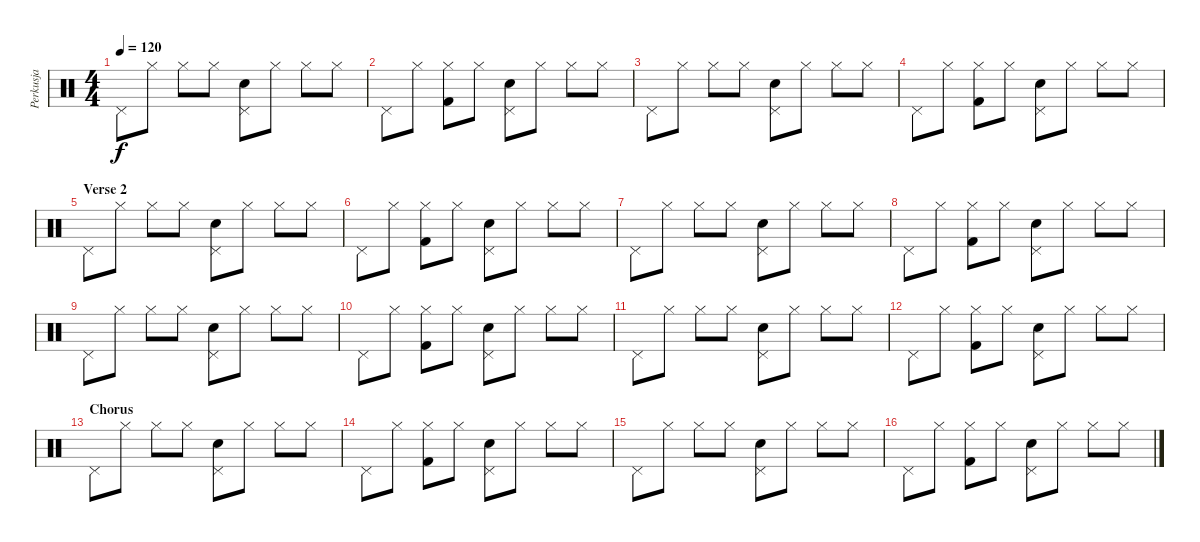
\track ("Perkusja" "Perkusja") {instrument percussion}
\staff {score}
\articulation defaults
\ts (4 4)
\tempo 120
\clef neutral
\ks c "Pedal Hi-Hat (hit)".8{dy f} "Hi-Hat (closed)".8 "Hi-Hat (closed)".8 "Hi-Hat (closed)".8
("Pedal Hi-Hat (hit)" "Snare (hit) 2").8 "Hi-Hat (closed)".8 "Hi-Hat (closed)".8 "Hi-Hat (closed)".8 |
"Pedal Hi-Hat (hit)".8 "Hi-Hat (closed)".8 ("Hi-Hat (closed)" "Kick (hit) 2").8 "Hi-Hat (closed)".8 ("Pedal Hi-Hat (hit)" "Snare (hit) 2").8 "Hi-Hat (closed)".8 "Hi-Hat (closed)".8 "Hi-Hat (closed)".8 |
"Pedal Hi-Hat (hit)".8 "Hi-Hat (closed)".8 "Hi-Hat (closed)".8 "Hi-Hat (closed)".8 ("Pedal Hi-Hat (hit)" "Snare (hit) 2").8 "Hi-Hat (closed)".8 "Hi-Hat (closed)".8 "Hi-Hat (closed)".8 |
"Pedal Hi-Hat (hit)".8 "Hi-Hat (closed)".8 ("Hi-Hat (closed)" "Kick (hit) 2").8 "Hi-Hat (closed)".8 ("Pedal Hi-Hat (hit)" "Snare (hit) 2").8 "Hi-Hat (closed)".8 "Hi-Hat (closed)".8 "Hi-Hat (closed)".8 |
\section ("" "Verse 2")
"Pedal Hi-Hat (hit)".8 "Hi-Hat (closed)".8 "Hi-Hat (closed)".8 "Hi-Hat (closed)".8 ("Pedal Hi-Hat (hit)" "Snare (hit) 2").8 "Hi-Hat (closed)".8 "Hi-Hat (closed)".8 "Hi-Hat (closed)".8 |
"Pedal Hi-Hat (hit)".8 "Hi-Hat (closed)".8 ("Hi-Hat (closed)" "Kick (hit) 2").8 "Hi-Hat (closed)".8 ("Pedal Hi-Hat (hit)" "Snare (hit) 2").8 "Hi-Hat (closed)".8 "Hi-Hat (closed)".8 "Hi-Hat (closed)".8 |
"Pedal Hi-Hat (hit)".8 "Hi-Hat (closed)".8 "Hi-Hat (closed)".8 "Hi-Hat (closed)".8 ("Pedal Hi-Hat (hit)" "Snare (hit) 2").8 "Hi-Hat (closed)".8 "Hi-Hat (closed)".8 "Hi-Hat (closed)".8 |
"Pedal Hi-Hat (hit)".8 "Hi-Hat (closed)".8 ("Hi-Hat (closed)" "Kick (hit) 2").8 "Hi-Hat (closed)".8 ("Pedal Hi-Hat (hit)" "Snare (hit) 2").8 "Hi-Hat (closed)".8 "Hi-Hat (closed)".8 "Hi-Hat (closed)".8 |
"Pedal Hi-Hat (hit)".8 "Hi-Hat (closed)".8 "Hi-Hat (closed)".8 "Hi-Hat (closed)".8 ("Pedal Hi-Hat (hit)" "Snare (hit) 2").8 "Hi-Hat (closed)".8 "Hi-Hat (closed)".8 "Hi-Hat (closed)".8 |
"Pedal Hi-Hat (hit)".8 "Hi-Hat (closed)".8 ("Hi-Hat (closed)" "Kick (hit) 2").8 "Hi-Hat (closed)".8 ("Pedal Hi-Hat (hit)" "Snare (hit) 2").8 "Hi-Hat (closed)".8 "Hi-Hat (closed)".8 "Hi-Hat (closed)".8 |
"Pedal Hi-Hat (hit)".8 "Hi-Hat (closed)".8 "Hi-Hat (closed)".8 "Hi-Hat (closed)".8 ("Pedal Hi-Hat (hit)" "Snare (hit) 2").8 "Hi-Hat (closed)".8 "Hi-Hat (closed)".8 "Hi-Hat (closed)".8 |
"Pedal Hi-Hat (hit)".8 "Hi-Hat (closed)".8 ("Hi-Hat (closed)" "Kick (hit) 2").8 "Hi-Hat (closed)".8 ("Pedal Hi-Hat (hit)" "Snare (hit) 2").8 "Hi-Hat (closed)".8 "Hi-Hat (closed)".8 "Hi-Hat (closed)".8 |
\section ("" "Chorus")
"Pedal Hi-Hat (hit)".8 "Hi-Hat (closed)".8 "Hi-Hat (closed)".8 "Hi-Hat (closed)".8 ("Pedal Hi-Hat (hit)" "Snare (hit) 2").8 "Hi-Hat (closed)".8 "Hi-Hat (closed)".8 "Hi-Hat (closed)".8 |
"Pedal Hi-Hat (hit)".8 "Hi-Hat (closed)".8 ("Hi-Hat (closed)" "Kick (hit) 2").8 "Hi-Hat (closed)".8 ("Pedal Hi-Hat (hit)" "Snare (hit) 2").8 "Hi-Hat (closed)".8 "Hi-Hat (closed)".8 "Hi-Hat (closed)".8 |
"Pedal Hi-Hat (hit)".8 "Hi-Hat (closed)".8 "Hi-Hat (closed)".8 "Hi-Hat (closed)".8 ("Pedal Hi-Hat (hit)" "Snare (hit) 2").8 "Hi-Hat (closed)".8 "Hi-Hat (closed)".8 "Hi-Hat (closed)".8 |
"Pedal Hi-Hat (hit)".8 "Hi-Hat (closed)".8 ("Hi-Hat (closed)" "Kick (hit) 2").8 "Hi-Hat (closed)".8 ("Pedal Hi-Hat (hit)" "Snare (hit) 2").8 "Hi-Hat (closed)".8 "Hi-Hat (closed)".8 "Hi-Hat (closed)".8
